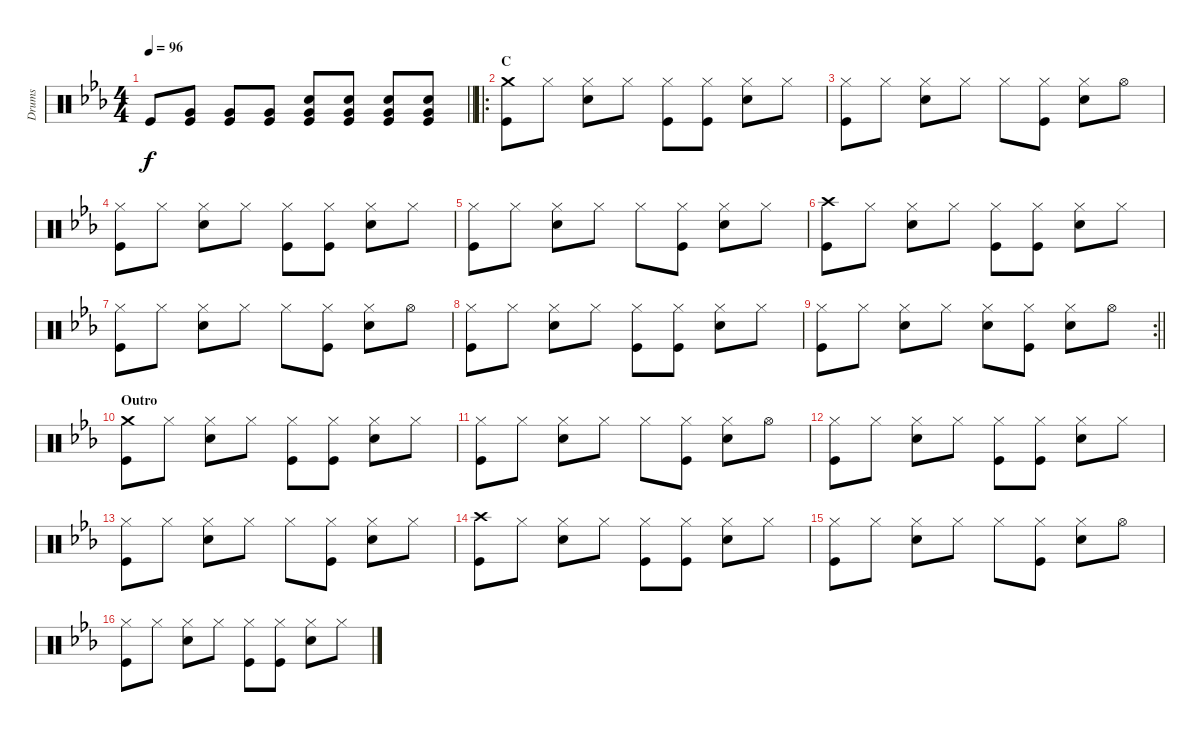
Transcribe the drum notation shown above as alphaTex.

\track ("Drums" "Drums") {instrument percussion}
\staff {score}
\articulation defaults
\ts (4 4)
\tempo 96
\clef neutral
\barLineRight lightlight
\ks cminor "Kick (hit)".8{dy f}
("Very Low Tom (hit)" "Kick (hit)").8 ("Very Low Tom (hit)" "Kick (hit)").8 ("Very Low Tom (hit)" "Kick (hit)").8 ("Snare (hit) 2" "Very Low Tom (hit)" "Kick (hit)").8 ("Snare (hit) 2" "Very Low Tom (hit)" "Kick (hit)").8 ("Snare (hit) 2" "Very Low Tom (hit)" "Kick (hit)").8 ("Snare (hit) 2" "Very Low Tom (hit)" "Kick (hit)").8 |
\ro
\section ("" "C")
("Crash medium (hit)" "Kick (hit)").8 "Hi-Hat (closed)".8 ("Hi-Hat (closed)" "Snare (hit) 2").8 "Hi-Hat (closed)".8 ("Hi-Hat (closed)" "Kick (hit)").8 ("Hi-Hat (closed)" "Kick (hit)").8 ("Hi-Hat (closed)" "Snare (hit) 2").8 "Hi-Hat (closed)".8 |
("Hi-Hat (closed)" "Kick (hit)").8 "Hi-Hat (closed)".8 ("Hi-Hat (closed)" "Snare (hit) 2").8 "Hi-Hat (closed)".8 "Hi-Hat (closed)".8 ("Hi-Hat (closed)" "Kick (hit)").8 ("Hi-Hat (closed)" "Snare (hit) 2").8 "Hi-Hat (open)".8 |
("Hi-Hat (closed)" "Kick (hit)").8 "Hi-Hat (closed)".8 ("Hi-Hat (closed)" "Snare (hit) 2").8 "Hi-Hat (closed)".8 ("Hi-Hat (closed)" "Kick (hit)").8 ("Hi-Hat (closed)" "Kick (hit)").8 ("Hi-Hat (closed)" "Snare (hit) 2").8 "Hi-Hat (closed)".8 |
("Hi-Hat (closed)" "Kick (hit)").8 "Hi-Hat (closed)".8 ("Hi-Hat (closed)" "Snare (hit) 2").8 "Hi-Hat (closed)".8 "Hi-Hat (closed)".8 ("Hi-Hat (closed)" "Kick (hit)").8 ("Hi-Hat (closed)" "Snare (hit) 2").8 "Hi-Hat (closed)".8 |
("Crash high (hit)" "Kick (hit)").8 "Hi-Hat (closed)".8 ("Hi-Hat (closed)" "Snare (hit) 2").8 "Hi-Hat (closed)".8 ("Hi-Hat (closed)" "Kick (hit)").8 ("Hi-Hat (closed)" "Kick (hit)").8 ("Hi-Hat (closed)" "Snare (hit) 2").8 "Hi-Hat (closed)".8 |
("Hi-Hat (closed)" "Kick (hit)").8 "Hi-Hat (closed)".8 ("Hi-Hat (closed)" "Snare (hit) 2").8 "Hi-Hat (closed)".8 "Hi-Hat (closed)".8 ("Hi-Hat (closed)" "Kick (hit)").8 ("Hi-Hat (closed)" "Snare (hit) 2").8 "Hi-Hat (open)".8 |
("Hi-Hat (closed)" "Kick (hit)").8 "Hi-Hat (closed)".8 ("Hi-Hat (closed)" "Snare (hit) 2").8 "Hi-Hat (closed)".8 ("Hi-Hat (closed)" "Kick (hit)").8 ("Hi-Hat (closed)" "Kick (hit)").8 ("Hi-Hat (closed)" "Snare (hit) 2").8 "Hi-Hat (closed)".8 |
\rc 2
\barLineRight lightlight
("Hi-Hat (closed)" "Kick (hit)").8 "Hi-Hat (closed)".8 ("Hi-Hat (closed)" "Snare (hit) 2").8 "Hi-Hat (closed)".8 ("Hi-Hat (closed)" "Snare (hit) 2").8 ("Hi-Hat (closed)" "Kick (hit)").8 ("Hi-Hat (closed)" "Snare (hit) 2").8 "Hi-Hat (open)".8 |
\section ("" "Outro")
("Crash medium (hit)" "Kick (hit)").8 "Hi-Hat (closed)".8 ("Hi-Hat (closed)" "Snare (hit) 2").8 "Hi-Hat (closed)".8 ("Hi-Hat (closed)" "Kick (hit)").8 ("Hi-Hat (closed)" "Kick (hit)").8 ("Hi-Hat (closed)" "Snare (hit) 2").8 "Hi-Hat (closed)".8 |
("Hi-Hat (closed)" "Kick (hit)").8 "Hi-Hat (closed)".8 ("Hi-Hat (closed)" "Snare (hit) 2").8 "Hi-Hat (closed)".8 "Hi-Hat (closed)".8 ("Hi-Hat (closed)" "Kick (hit)").8 ("Hi-Hat (closed)" "Snare (hit) 2").8 "Hi-Hat (open)".8 |
("Hi-Hat (closed)" "Kick (hit)").8 "Hi-Hat (closed)".8 ("Hi-Hat (closed)" "Snare (hit) 2").8 "Hi-Hat (closed)".8 ("Hi-Hat (closed)" "Kick (hit)").8 ("Hi-Hat (closed)" "Kick (hit)").8 ("Hi-Hat (closed)" "Snare (hit) 2").8 "Hi-Hat (closed)".8 |
("Hi-Hat (closed)" "Kick (hit)").8 "Hi-Hat (closed)".8 ("Hi-Hat (closed)" "Snare (hit) 2").8 "Hi-Hat (closed)".8 "Hi-Hat (closed)".8 ("Hi-Hat (closed)" "Kick (hit)").8 ("Hi-Hat (closed)" "Snare (hit) 2").8 "Hi-Hat (closed)".8 |
("Crash high (hit)" "Kick (hit)").8 "Hi-Hat (closed)".8 ("Hi-Hat (closed)" "Snare (hit) 2").8 "Hi-Hat (closed)".8 ("Hi-Hat (closed)" "Kick (hit)").8 ("Hi-Hat (closed)" "Kick (hit)").8 ("Hi-Hat (closed)" "Snare (hit) 2").8 "Hi-Hat (closed)".8 |
("Hi-Hat (closed)" "Kick (hit)").8 "Hi-Hat (closed)".8 ("Hi-Hat (closed)" "Snare (hit) 2").8 "Hi-Hat (closed)".8 "Hi-Hat (closed)".8 ("Hi-Hat (closed)" "Kick (hit)").8 ("Hi-Hat (closed)" "Snare (hit) 2").8 "Hi-Hat (open)".8 |
("Hi-Hat (closed)" "Kick (hit)").8 "Hi-Hat (closed)".8 ("Hi-Hat (closed)" "Snare (hit) 2").8 "Hi-Hat (closed)".8 ("Hi-Hat (closed)" "Kick (hit)").8 ("Hi-Hat (closed)" "Kick (hit)").8 ("Hi-Hat (closed)" "Snare (hit) 2").8 "Hi-Hat (closed)".8
